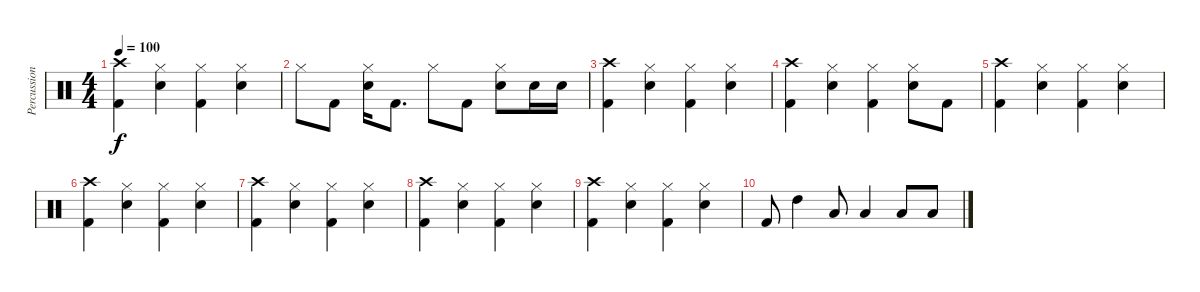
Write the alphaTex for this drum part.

\track ("Percussion" "Percussion") {instrument percussion}
\staff {score}
\articulation defaults
\ts (4 4)
\tempo 100
\clef neutral
\ks c
("Crash high (hit)" "Kick (hit) 2").4{dy f} ("Hi-Hat (closed)" "Snare (hit) 2").4 ("Hi-Hat (closed)" "Kick (hit) 2").4 ("Hi-Hat (closed)" "Snare (hit) 2").4 |
"Hi-Hat (closed)".8 "Kick (hit) 2".8 ("Hi-Hat (closed)" "Snare (hit) 2").16 "Kick (hit) 2".8{d} "Hi-Hat (closed)".8 "Kick (hit) 2".8 ("Hi-Hat (closed)" "Snare (hit) 2").8 "Snare (hit) 2".16 "Snare (hit) 2".16 |
("Crash high (hit)" "Kick (hit) 2").4 ("Hi-Hat (closed)" "Snare (hit) 2").4 ("Hi-Hat (closed)" "Kick (hit) 2").4 ("Hi-Hat (closed)" "Snare (hit) 2").4 |
("Crash high (hit)" "Kick (hit) 2").4 ("Hi-Hat (closed)" "Snare (hit) 2").4 ("Hi-Hat (closed)" "Kick (hit) 2").4 ("Hi-Hat (closed)" "Snare (hit) 2").8 "Kick (hit) 2".8 |
("Crash high (hit)" "Kick (hit) 2").4 ("Hi-Hat (closed)" "Snare (hit) 2").4 ("Hi-Hat (closed)" "Kick (hit) 2").4 ("Hi-Hat (closed)" "Snare (hit) 2").4 |
("Crash high (hit)" "Kick (hit) 2").4 ("Hi-Hat (closed)" "Snare (hit) 2").4 ("Hi-Hat (closed)" "Kick (hit) 2").4 ("Hi-Hat (closed)" "Snare (hit) 2").4 |
("Crash high (hit)" "Kick (hit) 2").4 ("Hi-Hat (closed)" "Snare (hit) 2").4 ("Hi-Hat (closed)" "Kick (hit) 2").4 ("Hi-Hat (closed)" "Snare (hit) 2").4 |
("Crash high (hit)" "Kick (hit) 2").4 ("Hi-Hat (closed)" "Snare (hit) 2").4 ("Hi-Hat (closed)" "Kick (hit) 2").4 ("Hi-Hat (closed)" "Snare (hit) 2").4 |
("Crash high (hit)" "Kick (hit) 2").4 ("Hi-Hat (closed)" "Snare (hit) 2").4 ("Hi-Hat (closed)" "Kick (hit) 2").4 ("Hi-Hat (closed)" "Snare (hit) 2").4 |
"Kick (hit) 2".8 "High Tom (hit)".4 "Low Tom (hit)".8 "Low Floor Tom (hit)".4 "Low Floor Tom (hit)".8 "Low Floor Tom (hit)".8
